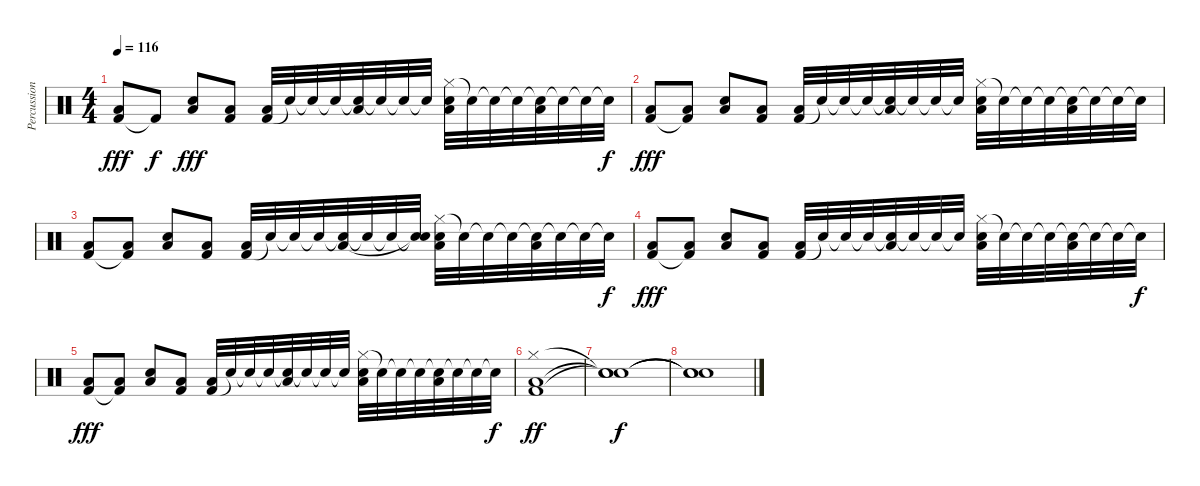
\track ("Percussion" "Percussion") {instrument percussion}
\staff {score}
\articulation defaults
\ts (4 4)
\tempo 116
\clef neutral
\ks c
("Kick (hit) 2" "Low Floor Tom (hit)").8{dy fff} "Kick (hit) 2"{t}.8{dy f} ("Electric Snare (hit)" "Low Floor Tom (hit)").8{dy fff} ("Kick (hit) 2" "Low Floor Tom (hit)").8 ("Kick (hit) 2" "Low Floor Tom (hit)").32 "Snare (hit)"{t}.32 "Snare (hit)"{t}.32 "Snare (hit)"{t}.32 ("Snare (hit)"{t} "Low Floor Tom (hit)").32 "Snare (hit)"{t}.32 "Snare (hit)"{t}.32 "Snare (hit)"{t}.32 ("Hi-Hat (closed)" "Electric Snare (hit)" "Low Floor Tom (hit)").32 "Snare (hit)"{t}.32 "Snare (hit)"{t}.32 "Snare (hit)"{t}.32 ("Snare (hit)"{t} "Low Floor Tom (hit)").32 "Snare (hit)"{t}.32 "Snare (hit)"{t}.32 "Snare (hit)"{t}.32{dy f} |
("Kick (hit) 2" "Low Floor Tom (hit)").8{dy fff} ("Kick (hit) 2"{t} "Low Floor Tom (hit)").8 ("Electric Snare (hit)" "Low Floor Tom (hit)").8 ("Kick (hit) 2" "Low Floor Tom (hit)").8 ("Kick (hit) 2" "Low Floor Tom (hit)").32 "Snare (hit)"{t}.32 "Snare (hit)"{t}.32 "Snare (hit)"{t}.32 ("Snare (hit)"{t} "Low Floor Tom (hit)").32 "Snare (hit)"{t}.32 "Snare (hit)"{t}.32 "Snare (hit)"{t}.32 ("Hi-Hat (closed)" "Electric Snare (hit)" "Low Floor Tom (hit)").32 "Snare (hit)"{t}.32 "Snare (hit)"{t}.32 "Snare (hit)"{t}.32 ("Snare (hit)"{t} "Low Floor Tom (hit)").32 "Snare (hit)"{t}.32 "Snare (hit)"{t}.32 "Snare (hit)"{t}.32 |
("Kick (hit) 2" "Low Floor Tom (hit)").8 ("Kick (hit) 2"{t} "Low Floor Tom (hit)").8 ("Electric Snare (hit)" "Low Floor Tom (hit)").8 ("Kick (hit) 2" "Low Floor Tom (hit)").8 ("Kick (hit) 2" "Low Floor Tom (hit)").32 "Snare (hit)"{t}.32 "Snare (hit)"{t}.32 "Snare (hit)"{t}.32 ("Snare (hit)"{t} "Low Floor Tom (hit)").32 "Snare (hit)"{t}.32 "Snare (hit)"{t}.32 ("Snare (hit)"{t} "Snare (hit)"{t}).32 ("Hi-Hat (closed)" "Electric Snare (hit)" "Low Floor Tom (hit)").32 "Snare (hit)"{t}.32 "Snare (hit)"{t}.32 "Snare (hit)"{t}.32 ("Snare (hit)"{t} "Low Floor Tom (hit)").32 "Snare (hit)"{t}.32 "Snare (hit)"{t}.32 "Snare (hit)"{t}.32{dy f} |
("Kick (hit) 2" "Low Floor Tom (hit)").8{dy fff} ("Kick (hit) 2"{t} "Low Floor Tom (hit)").8 ("Electric Snare (hit)" "Low Floor Tom (hit)").8 ("Kick (hit) 2" "Low Floor Tom (hit)").8 ("Kick (hit) 2" "Low Floor Tom (hit)").32 "Snare (hit)"{t}.32 "Snare (hit)"{t}.32 "Snare (hit)"{t}.32 ("Snare (hit)"{t} "Low Floor Tom (hit)").32 "Snare (hit)"{t}.32 "Snare (hit)"{t}.32 "Snare (hit)"{t}.32 ("Hi-Hat (closed)" "Electric Snare (hit)" "Low Floor Tom (hit)").32 "Snare (hit)"{t}.32 "Snare (hit)"{t}.32 "Snare (hit)"{t}.32 ("Snare (hit)"{t} "Low Floor Tom (hit)").32 "Snare (hit)"{t}.32 "Snare (hit)"{t}.32 "Snare (hit)"{t}.32{dy f} |
("Kick (hit) 2" "Low Floor Tom (hit)").8{dy fff} ("Kick (hit) 2"{t} "Low Floor Tom (hit)").8 ("Electric Snare (hit)" "Low Floor Tom (hit)").8 ("Kick (hit) 2" "Low Floor Tom (hit)").8 ("Kick (hit) 2" "Low Floor Tom (hit)").32 "Snare (hit)"{t}.32 "Snare (hit)"{t}.32 "Snare (hit)"{t}.32 ("Snare (hit)"{t} "Low Floor Tom (hit)").32 "Snare (hit)"{t}.32 "Snare (hit)"{t}.32 "Snare (hit)"{t}.32 ("Hi-Hat (closed)" "Electric Snare (hit)" "Low Floor Tom (hit)").32 "Snare (hit)"{t}.32 "Snare (hit)"{t}.32 "Snare (hit)"{t}.32 ("Snare (hit)"{t} "Low Floor Tom (hit)").32 "Snare (hit)"{t}.32 "Snare (hit)"{t}.32 "Snare (hit)"{t}.32{dy f} |
("Hi-Hat (closed)" "Low Floor Tom (hit)" "Kick (hit) 2").1{dy ff} |
("Snare (hit)"{t} "Snare (hit)"{t} "Snare (hit)"{t}).1{dy f} |
("Snare (hit)"{t} "Snare (hit)"{t} "Snare (hit)"{t}).1
